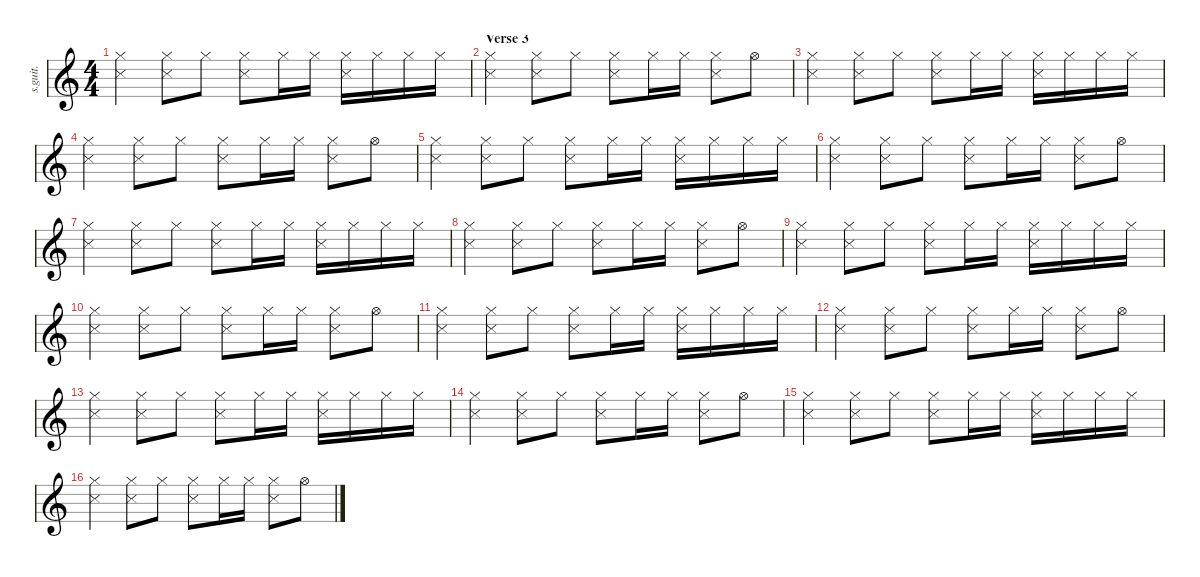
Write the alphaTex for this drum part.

\defaultSystemsLayout 4
\hideDynamics
\bracketExtendMode nobrackets
\track ("Percussion" "s.guit.") {instrument percussion}
\staff {score}
\articulation defaults
\ts (4 4)
\tempo (102 hide)
\clef g2
\ks c
("Snare (side stick) 3" "Hi-Hat (closed)").4{dy f} ("Snare (side stick) 3" "Hi-Hat (closed)").8 "Hi-Hat (closed)".8 ("Snare (side stick) 3" "Hi-Hat (closed)").8 "Hi-Hat (closed)".16 "Hi-Hat (closed)".16 ("Snare (side stick) 3" "Hi-Hat (closed)").16 "Hi-Hat (closed)".16 "Hi-Hat (closed)".16 "Hi-Hat (closed)".16 |
\section ("" "Verse 3")
("Snare (side stick) 3" "Hi-Hat (closed)").4 ("Snare (side stick) 3" "Hi-Hat (closed)").8 "Hi-Hat (closed)".8 ("Snare (side stick) 3" "Hi-Hat (closed)").8 "Hi-Hat (closed)".16 "Hi-Hat (closed)".16 ("Snare (side stick) 3" "Hi-Hat (closed)").8 "Hi-Hat (open)".8 |
("Snare (side stick) 3" "Hi-Hat (closed)").4 ("Snare (side stick) 3" "Hi-Hat (closed)").8 "Hi-Hat (closed)".8 ("Snare (side stick) 3" "Hi-Hat (closed)").8 "Hi-Hat (closed)".16 "Hi-Hat (closed)".16 ("Snare (side stick) 3" "Hi-Hat (closed)").16 "Hi-Hat (closed)".16 "Hi-Hat (closed)".16 "Hi-Hat (closed)".16 |
("Snare (side stick) 3" "Hi-Hat (closed)").4 ("Snare (side stick) 3" "Hi-Hat (closed)").8 "Hi-Hat (closed)".8 ("Snare (side stick) 3" "Hi-Hat (closed)").8 "Hi-Hat (closed)".16 "Hi-Hat (closed)".16 ("Snare (side stick) 3" "Hi-Hat (closed)").8 "Hi-Hat (open)".8 |
("Snare (side stick) 3" "Hi-Hat (closed)").4 ("Snare (side stick) 3" "Hi-Hat (closed)").8 "Hi-Hat (closed)".8 ("Snare (side stick) 3" "Hi-Hat (closed)").8 "Hi-Hat (closed)".16 "Hi-Hat (closed)".16 ("Snare (side stick) 3" "Hi-Hat (closed)").16 "Hi-Hat (closed)".16 "Hi-Hat (closed)".16 "Hi-Hat (closed)".16 |
("Snare (side stick) 3" "Hi-Hat (closed)").4 ("Snare (side stick) 3" "Hi-Hat (closed)").8 "Hi-Hat (closed)".8 ("Snare (side stick) 3" "Hi-Hat (closed)").8 "Hi-Hat (closed)".16 "Hi-Hat (closed)".16 ("Snare (side stick) 3" "Hi-Hat (closed)").8 "Hi-Hat (open)".8 |
("Snare (side stick) 3" "Hi-Hat (closed)").4 ("Snare (side stick) 3" "Hi-Hat (closed)").8 "Hi-Hat (closed)".8 ("Snare (side stick) 3" "Hi-Hat (closed)").8 "Hi-Hat (closed)".16 "Hi-Hat (closed)".16 ("Snare (side stick) 3" "Hi-Hat (closed)").16 "Hi-Hat (closed)".16 "Hi-Hat (closed)".16 "Hi-Hat (closed)".16 |
("Snare (side stick) 3" "Hi-Hat (closed)").4 ("Snare (side stick) 3" "Hi-Hat (closed)").8 "Hi-Hat (closed)".8 ("Snare (side stick) 3" "Hi-Hat (closed)").8 "Hi-Hat (closed)".16 "Hi-Hat (closed)".16 ("Snare (side stick) 3" "Hi-Hat (closed)").8 "Hi-Hat (open)".8 |
("Snare (side stick) 3" "Hi-Hat (closed)").4 ("Snare (side stick) 3" "Hi-Hat (closed)").8 "Hi-Hat (closed)".8 ("Snare (side stick) 3" "Hi-Hat (closed)").8 "Hi-Hat (closed)".16 "Hi-Hat (closed)".16 ("Snare (side stick) 3" "Hi-Hat (closed)").16 "Hi-Hat (closed)".16 "Hi-Hat (closed)".16 "Hi-Hat (closed)".16 |
("Snare (side stick) 3" "Hi-Hat (closed)").4 ("Snare (side stick) 3" "Hi-Hat (closed)").8 "Hi-Hat (closed)".8 ("Snare (side stick) 3" "Hi-Hat (closed)").8 "Hi-Hat (closed)".16 "Hi-Hat (closed)".16 ("Snare (side stick) 3" "Hi-Hat (closed)").8 "Hi-Hat (open)".8 |
("Snare (side stick) 3" "Hi-Hat (closed)").4 ("Snare (side stick) 3" "Hi-Hat (closed)").8 "Hi-Hat (closed)".8 ("Snare (side stick) 3" "Hi-Hat (closed)").8 "Hi-Hat (closed)".16 "Hi-Hat (closed)".16 ("Snare (side stick) 3" "Hi-Hat (closed)").16 "Hi-Hat (closed)".16 "Hi-Hat (closed)".16 "Hi-Hat (closed)".16 |
("Snare (side stick) 3" "Hi-Hat (closed)").4 ("Snare (side stick) 3" "Hi-Hat (closed)").8 "Hi-Hat (closed)".8 ("Snare (side stick) 3" "Hi-Hat (closed)").8 "Hi-Hat (closed)".16 "Hi-Hat (closed)".16 ("Snare (side stick) 3" "Hi-Hat (closed)").8 "Hi-Hat (open)".8 |
("Snare (side stick) 3" "Hi-Hat (closed)").4 ("Snare (side stick) 3" "Hi-Hat (closed)").8 "Hi-Hat (closed)".8 ("Snare (side stick) 3" "Hi-Hat (closed)").8 "Hi-Hat (closed)".16 "Hi-Hat (closed)".16 ("Snare (side stick) 3" "Hi-Hat (closed)").16 "Hi-Hat (closed)".16 "Hi-Hat (closed)".16 "Hi-Hat (closed)".16 |
("Snare (side stick) 3" "Hi-Hat (closed)").4 ("Snare (side stick) 3" "Hi-Hat (closed)").8 "Hi-Hat (closed)".8 ("Snare (side stick) 3" "Hi-Hat (closed)").8 "Hi-Hat (closed)".16 "Hi-Hat (closed)".16 ("Snare (side stick) 3" "Hi-Hat (closed)").8 "Hi-Hat (open)".8 |
("Snare (side stick) 3" "Hi-Hat (closed)").4 ("Snare (side stick) 3" "Hi-Hat (closed)").8 "Hi-Hat (closed)".8 ("Snare (side stick) 3" "Hi-Hat (closed)").8 "Hi-Hat (closed)".16 "Hi-Hat (closed)".16 ("Snare (side stick) 3" "Hi-Hat (closed)").16 "Hi-Hat (closed)".16 "Hi-Hat (closed)".16 "Hi-Hat (closed)".16 |
("Snare (side stick) 3" "Hi-Hat (closed)").4 ("Snare (side stick) 3" "Hi-Hat (closed)").8 "Hi-Hat (closed)".8 ("Snare (side stick) 3" "Hi-Hat (closed)").8 "Hi-Hat (closed)".16 "Hi-Hat (closed)".16 ("Snare (side stick) 3" "Hi-Hat (closed)").8 "Hi-Hat (open)".8
